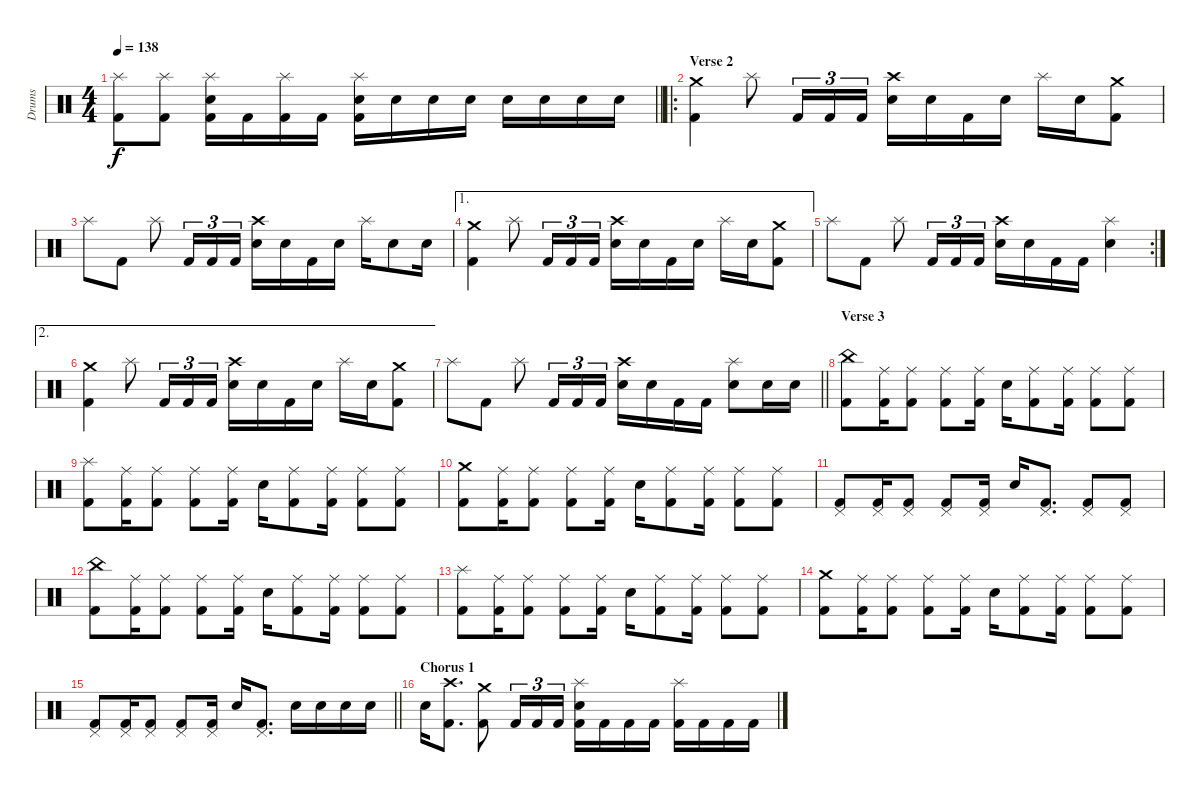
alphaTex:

\track ("Drums" "Drums") {instrument percussion}
\staff {score}
\articulation defaults
\ts (4 4)
\tempo 138
\clef neutral
\barLineRight lightlight
\ks c
("Splash (hit)" "Kick (hit) 2").8{dy f} ("Splash (hit)" "Kick (hit) 2").8 ("Splash (hit)" "Snare (hit) 2" "Kick (hit) 2").16 "Kick (hit) 2".16 ("Splash (hit)" "Kick (hit) 2").16 "Kick (hit) 2".16 ("Splash (hit)" "Snare (hit) 2" "Kick (hit) 2").16 "Snare (hit) 2".16 "Snare (hit) 2".16 "Snare (hit) 2".16 "Snare (hit) 2".16 "Snare (hit) 2".16 "Snare (hit) 2".16 "Snare (hit) 2".16 |
\ro
\section ("" "Verse 2")
("Crash medium (hit)" "Kick (hit) 2").4 "Splash (hit)".8 "Kick (hit) 2".16{tu (3 2)} "Kick (hit) 2".16{tu (3 2)} "Kick (hit) 2".16{tu (3 2)} ("Crash high (hit)" "Snare (hit) 2").16 "Snare (hit) 2".16 "Kick (hit) 2".16 "Snare (hit) 2".16 "Splash (hit)".16 "Snare (hit) 2".16 ("Crash medium (hit)" "Kick (hit) 2").8 |
"Splash (hit)".8 "Kick (hit) 2".8 "Splash (hit)".8 "Kick (hit) 2".16{tu (3 2)} "Kick (hit) 2".16{tu (3 2)} "Kick (hit) 2".16{tu (3 2)} ("Crash high (hit)" "Snare (hit) 2").16 "Snare (hit) 2".16 "Kick (hit) 2".16 "Snare (hit) 2".16 "Splash (hit)".16 "Snare (hit) 2".8 "Snare (hit) 2".16 |
\ae 1
("Crash medium (hit)" "Kick (hit) 2").4 "Splash (hit)".8 "Kick (hit) 2".16{tu (3 2)} "Kick (hit) 2".16{tu (3 2)} "Kick (hit) 2".16{tu (3 2)} ("Crash high (hit)" "Snare (hit) 2").16 "Snare (hit) 2".16 "Kick (hit) 2".16 "Snare (hit) 2".16 "Splash (hit)".16 "Snare (hit) 2".16 ("Crash medium (hit)" "Kick (hit) 2").8 |
\rc 2 "Splash (hit)".8 "Kick (hit) 2".8 "Splash (hit)".8 "Kick (hit) 2".16{tu (3 2)} "Kick (hit) 2".16{tu (3 2)} "Kick (hit) 2".16{tu (3 2)}
("Crash high (hit)" "Snare (hit) 2").16 "Snare (hit) 2".16 "Kick (hit) 2".16 "Kick (hit) 2".16 ("Splash (hit)" "Snare (hit) 2").4 |
\ae 2
("Crash medium (hit)" "Kick (hit) 2").4 "Splash (hit)".8 "Kick (hit) 2".16{tu (3 2)} "Kick (hit) 2".16{tu (3 2)} "Kick (hit) 2".16{tu (3 2)} ("Crash high (hit)" "Snare (hit) 2").16 "Snare (hit) 2".16 "Kick (hit) 2".16 "Snare (hit) 2".16 "Splash (hit)".16 "Snare (hit) 2".16 ("Crash medium (hit)" "Kick (hit) 2").8 |
\barLineRight lightlight "Splash (hit)".8 "Kick (hit) 2".8 "Splash (hit)".8 "Kick (hit) 2".16{tu (3 2)} "Kick (hit) 2".16{tu (3 2)} "Kick (hit) 2".16{tu (3 2)}
("Crash high (hit)" "Snare (hit) 2").16 "Snare (hit) 2".16 "Kick (hit) 2".16 "Kick (hit) 2".16 ("Splash (hit)" "Snare (hit) 2").8 "Snare (hit) 2".16 "Snare (hit) 2".16 |
\section ("" "Verse 3")
("China (hit)" "Kick (hit) 2").8 ("Ride (middle)" "Kick (hit) 2").16 ("Ride (middle)" "Kick (hit) 2").8 ("Ride (middle)" "Kick (hit) 2").8 ("Ride (middle)" "Kick (hit) 2").16 "Snare (hit) 2".16 ("Ride (middle)" "Kick (hit) 2").8 ("Ride (middle)" "Kick (hit) 2").16 ("Ride (middle)" "Kick (hit) 2").8 ("Ride (middle)" "Kick (hit) 2").8 |
("Splash (hit)" "Kick (hit) 2").8 ("Ride (middle)" "Kick (hit) 2").16 ("Ride (middle)" "Kick (hit) 2").8 ("Ride (middle)" "Kick (hit) 2").8 ("Ride (middle)" "Kick (hit) 2").16 "Snare (hit) 2".16 ("Ride (middle)" "Kick (hit) 2").8 ("Ride (middle)" "Kick (hit) 2").16 ("Ride (middle)" "Kick (hit) 2").8 ("Ride (middle)" "Kick (hit) 2").8 |
("Crash medium (hit)" "Kick (hit) 2").8 ("Ride (middle)" "Kick (hit) 2").16 ("Ride (middle)" "Kick (hit) 2").8 ("Ride (middle)" "Kick (hit) 2").8 ("Ride (middle)" "Kick (hit) 2").16 "Snare (hit) 2".16 ("Ride (middle)" "Kick (hit) 2").8 ("Ride (middle)" "Kick (hit) 2").16 ("Ride (middle)" "Kick (hit) 2").8 ("Ride (middle)" "Kick (hit) 2").8 |
("Pedal Hi-Hat (hit)" "Kick (hit) 2").8 ("Pedal Hi-Hat (hit)" "Kick (hit) 2").16 ("Pedal Hi-Hat (hit)" "Kick (hit) 2").8 ("Pedal Hi-Hat (hit)" "Kick (hit) 2").8 ("Pedal Hi-Hat (hit)" "Kick (hit) 2").16 "Snare (hit) 2".16 ("Pedal Hi-Hat (hit)" "Kick (hit) 2").8{d} ("Pedal Hi-Hat (hit)" "Kick (hit) 2").8 ("Pedal Hi-Hat (hit)" "Kick (hit) 2").8 |
("China (hit)" "Kick (hit) 2").8 ("Ride (middle)" "Kick (hit) 2").16 ("Ride (middle)" "Kick (hit) 2").8 ("Ride (middle)" "Kick (hit) 2").8 ("Ride (middle)" "Kick (hit) 2").16 "Snare (hit) 2".16 ("Ride (middle)" "Kick (hit) 2").8 ("Ride (middle)" "Kick (hit) 2").16 ("Ride (middle)" "Kick (hit) 2").8 ("Ride (middle)" "Kick (hit) 2").8 |
("Splash (hit)" "Kick (hit) 2").8 ("Ride (middle)" "Kick (hit) 2").16 ("Ride (middle)" "Kick (hit) 2").8 ("Ride (middle)" "Kick (hit) 2").8 ("Ride (middle)" "Kick (hit) 2").16 "Snare (hit) 2".16 ("Ride (middle)" "Kick (hit) 2").8 ("Ride (middle)" "Kick (hit) 2").16 ("Ride (middle)" "Kick (hit) 2").8 ("Ride (middle)" "Kick (hit) 2").8 |
("Crash medium (hit)" "Kick (hit) 2").8 ("Ride (middle)" "Kick (hit) 2").16 ("Ride (middle)" "Kick (hit) 2").8 ("Ride (middle)" "Kick (hit) 2").8 ("Ride (middle)" "Kick (hit) 2").16 "Snare (hit) 2".16 ("Ride (middle)" "Kick (hit) 2").8 ("Ride (middle)" "Kick (hit) 2").16 ("Ride (middle)" "Kick (hit) 2").8 ("Ride (middle)" "Kick (hit) 2").8 |
\barLineRight lightlight
("Pedal Hi-Hat (hit)" "Kick (hit) 2").8 ("Pedal Hi-Hat (hit)" "Kick (hit) 2").16 ("Pedal Hi-Hat (hit)" "Kick (hit) 2").8 ("Pedal Hi-Hat (hit)" "Kick (hit) 2").8 ("Pedal Hi-Hat (hit)" "Kick (hit) 2").16 "Snare (hit) 2".16 ("Pedal Hi-Hat (hit)" "Kick (hit) 2").8{d} "Snare (hit) 2".16 "Snare (hit) 2".16 "Snare (hit) 2".16 "Snare (hit) 2".16 |
\section ("" "Chorus 1")
"Snare (hit) 2".16 ("Crash high (hit)" "Kick (hit) 2").8{d} ("Crash medium (hit)" "Kick (hit) 2").8 "Kick (hit) 2".16{tu (3 2)} "Kick (hit) 2".16{tu (3 2)} "Kick (hit) 2".16{tu (3 2)} ("Splash (hit)" "Snare (hit) 2" "Kick (hit) 2").16 "Kick (hit) 2".16 "Kick (hit) 2".16 "Kick (hit) 2".16 ("Splash (hit)" "Kick (hit) 2").16 "Kick (hit) 2".16 "Kick (hit) 2".16 "Kick (hit) 2".16
